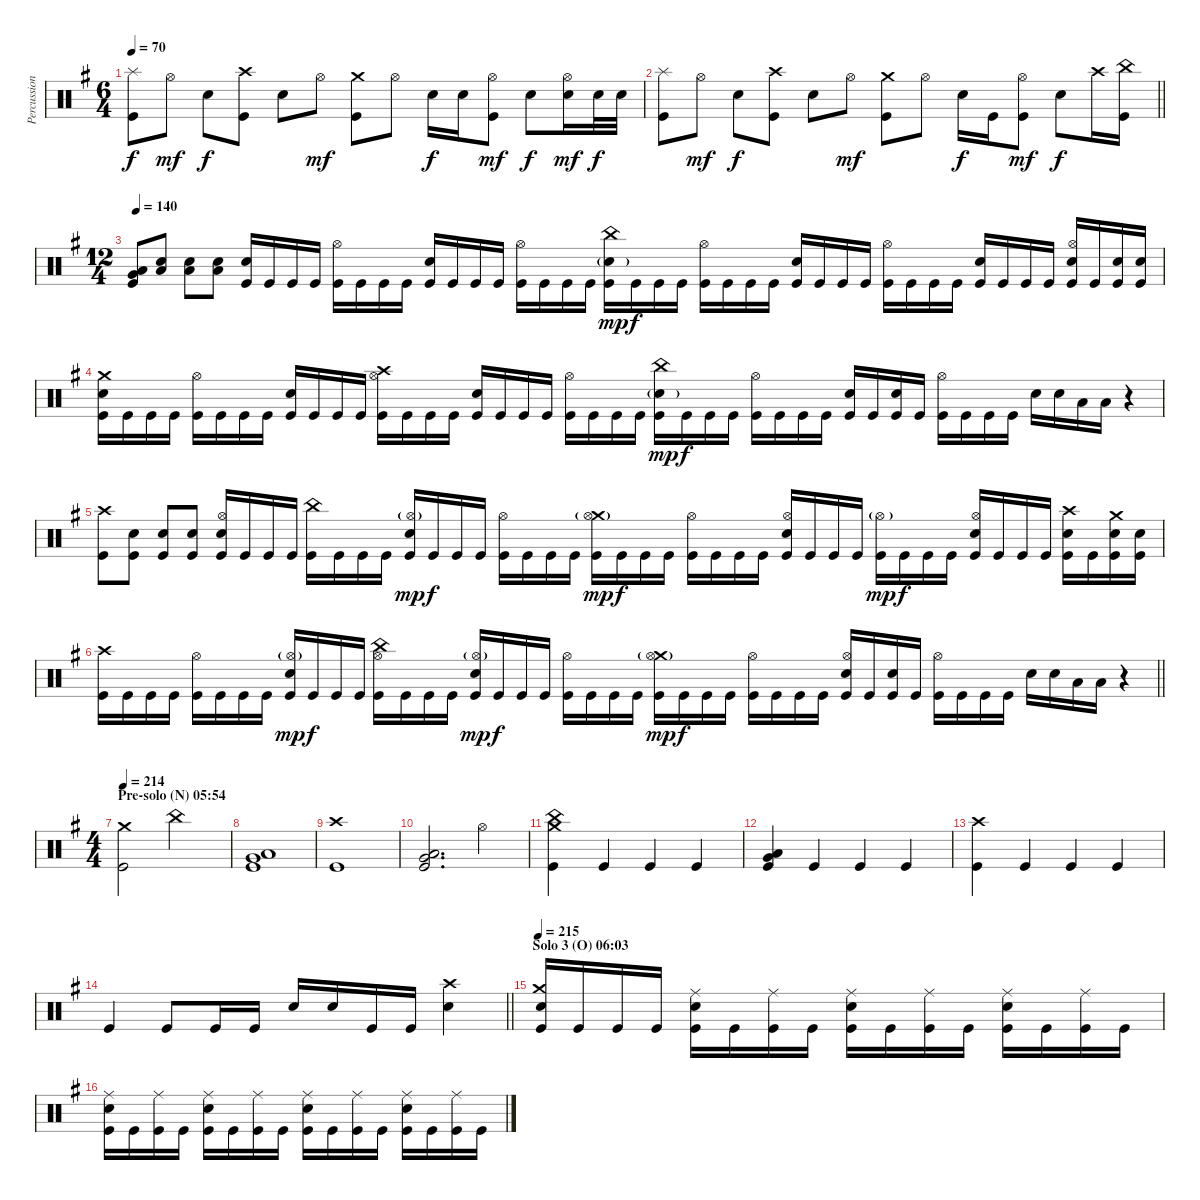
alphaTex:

\track ("Percussion" "Percussion") {instrument percussion}
\staff {score}
\articulation defaults
\ts (6 4)
\tempo 70
\clef neutral
\ks eminor
("Splash (hit)" "Kick (hit)").8{dy f} "Hi-Hat (open)".8{dy mf} "Snare (hit) 2".8{dy f} ("Crash high (hit)" "Kick (hit)").8 "Snare (hit) 2".8 "Hi-Hat (open)".8{dy mf} ("Crash medium (hit)" "Kick (hit)").8 "Hi-Hat (open)".8 "Snare (hit) 2".16{dy f} "Snare (hit) 2".16 ("Hi-Hat (open)" "Kick (hit)").8{dy mf} "Snare (hit) 2".8{dy f} ("Hi-Hat (open)" "Snare (hit) 2").16{dy mf} "Snare (hit) 2".32{dy f} "Snare (hit) 2".32 |
\barLineRight lightlight
("Splash (hit)" "Kick (hit)").8 "Hi-Hat (open)".8{dy mf} "Snare (hit) 2".8{dy f} ("Crash high (hit)" "Kick (hit)").8 "Snare (hit) 2".8 "Hi-Hat (open)".8{dy mf} ("Crash medium (hit)" "Kick (hit)").8 "Hi-Hat (open)".8 "Snare (hit) 2".16{dy f} "Kick (hit)".16 ("Hi-Hat (open)" "Kick (hit)").8{dy mf} "Snare (hit) 2".8{dy f} "Crash high (hit)".16 ("China (hit)" "Kick (hit)").16 |
\ts (12 4)
\tempo 140
("Very Low Tom (hit)" "Low Floor Tom (hit)" "Kick (hit)").8 ("Low Floor Tom (hit)" "Snare (hit) 2").8 ("Low Floor Tom (hit)" "Snare (hit) 2").8 ("Low Floor Tom (hit)" "Snare (hit) 2").8 ("Snare (hit) 2" "Kick (hit)").16 "Kick (hit)".16 "Kick (hit)".16 "Kick (hit)".16 ("Hi-Hat (open)" "Kick (hit)").16 "Kick (hit)".16 "Kick (hit)".16 "Kick (hit)".16 ("Snare (hit) 2" "Kick (hit)").16 "Kick (hit)".16 "Kick (hit)".16 "Kick (hit)".16 ("Hi-Hat (open)" "Kick (hit)").16 "Kick (hit)".16 "Kick (hit)".16 "Kick (hit)".16 ("China (hit)" "Snare (hit) 2"{g} "Kick (hit)").16{dy mp} "Kick (hit)".16{dy f} "Kick (hit)".16 "Kick (hit)".16 ("Hi-Hat (open)" "Kick (hit)").16 "Kick (hit)".16 "Kick (hit)".16 "Kick (hit)".16 ("Snare (hit) 2" "Kick (hit)").16 "Kick (hit)".16 "Kick (hit)".16 "Kick (hit)".16 ("Hi-Hat (open)" "Kick (hit)").16 "Kick (hit)".16 "Kick (hit)".16 "Kick (hit)".16 ("Snare (hit) 2" "Kick (hit)").16 "Kick (hit)".16 "Kick (hit)".16 "Kick (hit)".16 ("Hi-Hat (open)" "Snare (hit) 2" "Kick (hit)").16 "Kick (hit)".16 ("Snare (hit) 2" "Kick (hit)").16 ("Snare (hit) 2" "Kick (hit)").16 |
("Crash medium (hit)" "Snare (hit) 2" "Kick (hit)").16 "Kick (hit)".16 "Kick (hit)".16 "Kick (hit)".16 ("Hi-Hat (open)" "Kick (hit)").16 "Kick (hit)".16 "Kick (hit)".16 "Kick (hit)".16 ("Snare (hit) 2" "Kick (hit)").16 "Kick (hit)".16 "Kick (hit)".16 "Kick (hit)".16 ("Crash high (hit)" "Hi-Hat (open)" "Kick (hit)").16 "Kick (hit)".16 "Kick (hit)".16 "Kick (hit)".16 ("Snare (hit) 2" "Kick (hit)").16 "Kick (hit)".16 "Kick (hit)".16 "Kick (hit)".16 ("Hi-Hat (open)" "Kick (hit)").16 "Kick (hit)".16 "Kick (hit)".16 "Kick (hit)".16 ("China (hit)" "Snare (hit) 2"{g} "Kick (hit)").16{dy mp} "Kick (hit)".16{dy f} "Kick (hit)".16 "Kick (hit)".16 ("Hi-Hat (open)" "Kick (hit)").16 "Kick (hit)".16 "Kick (hit)".16 "Kick (hit)".16 ("Snare (hit) 2" "Kick (hit)").16 "Kick (hit)".16 ("Snare (hit) 2" "Kick (hit)").16 "Kick (hit)".16 ("Hi-Hat (open)" "Kick (hit)").16 "Kick (hit)".16 "Kick (hit)".16 "Kick (hit)".16 "Snare (hit) 2".16 "Snare (hit) 2".16 "Low Tom (hit)".16 "Low Tom (hit)".16 r.4 |
("Crash high (hit)" "Kick (hit)").8 ("Snare (hit) 2" "Kick (hit)").8 ("Snare (hit) 2" "Kick (hit)").8 ("Snare (hit) 2" "Kick (hit)").8 ("Hi-Hat (open)" "Snare (hit) 2" "Kick (hit)").16 "Kick (hit)".16 "Kick (hit)".16 "Kick (hit)".16 ("China (hit)" "Kick (hit)").16 "Kick (hit)".16 "Kick (hit)".16 "Kick (hit)".16 ("Hi-Hat (open)"{g} "Snare (hit) 2" "Kick (hit)").16{dy mp} "Kick (hit)".16{dy f} "Kick (hit)".16 "Kick (hit)".16 ("Hi-Hat (open)" "Kick (hit)").16 "Kick (hit)".16 "Kick (hit)".16 "Kick (hit)".16 ("Crash medium (hit)" "Hi-Hat (open)"{g} "Kick (hit)").16{dy mp} "Kick (hit)".16{dy f} "Kick (hit)".16 "Kick (hit)".16 ("Hi-Hat (open)" "Kick (hit)").16 "Kick (hit)".16 "Kick (hit)".16 "Kick (hit)".16 ("Hi-Hat (open)" "Snare (hit) 2" "Kick (hit)").16 "Kick (hit)".16 "Kick (hit)".16 "Kick (hit)".16 ("Hi-Hat (open)"{g} "Kick (hit)").16{dy mp} "Kick (hit)".16{dy f} "Kick (hit)".16 "Kick (hit)".16 ("Hi-Hat (open)" "Snare (hit) 2" "Kick (hit)").16 "Kick (hit)".16 "Kick (hit)".16 "Kick (hit)".16 ("Crash high (hit)" "Snare (hit) 2" "Kick (hit)").16 "Kick (hit)".16 ("Crash medium (hit)" "Snare (hit) 2" "Kick (hit)").16 ("Snare (hit) 2" "Kick (hit)").16 |
\barLineRight lightlight
("Crash high (hit)" "Kick (hit)").16 "Kick (hit)".16 "Kick (hit)".16 "Kick (hit)".16 ("Hi-Hat (open)" "Kick (hit)").16 "Kick (hit)".16 "Kick (hit)".16 "Kick (hit)".16 ("Hi-Hat (open)"{g} "Snare (hit) 2" "Kick (hit)").16{dy mp} "Kick (hit)".16{dy f} "Kick (hit)".16 "Kick (hit)".16 ("China (hit)" "Hi-Hat (open)" "Kick (hit)").16 "Kick (hit)".16 "Kick (hit)".16 "Kick (hit)".16 ("Hi-Hat (open)"{g} "Snare (hit) 2" "Kick (hit)").16{dy mp} "Kick (hit)".16{dy f} "Kick (hit)".16 "Kick (hit)".16 ("Hi-Hat (open)" "Kick (hit)").16 "Kick (hit)".16 "Kick (hit)".16 "Kick (hit)".16 ("Crash medium (hit)" "Hi-Hat (open)"{g} "Kick (hit)").16{dy mp} "Kick (hit)".16{dy f} "Kick (hit)".16 "Kick (hit)".16 ("Hi-Hat (open)" "Kick (hit)").16 "Kick (hit)".16 "Kick (hit)".16 "Kick (hit)".16 ("Hi-Hat (open)" "Snare (hit) 2" "Kick (hit)").16 "Kick (hit)".16 ("Snare (hit) 2" "Kick (hit)").16 "Kick (hit)".16 ("Hi-Hat (open)" "Kick (hit)").16 "Kick (hit)".16 "Kick (hit)".16 "Kick (hit)".16 "Snare (hit) 2".16 "Snare (hit) 2".16 "Low Tom (hit)".16 "Low Tom (hit)".16 r.4 |
\ts (4 4)
\section ("" "Pre-solo (N) 05:54")
\tempo 214
("Crash medium (hit)" "Kick (hit)").2 "China (hit)".2 |
("Low Tom (hit)" "Very Low Tom (hit)" "Kick (hit)").1 |
("Crash high (hit)" "Kick (hit)").1 |
("Low Tom (hit)" "Very Low Tom (hit)" "Kick (hit)").2{d} "Hi-Hat (open)".4 |
("China (hit)" "Crash medium (hit)" "Kick (hit)").4 "Kick (hit)".4 "Kick (hit)".4 "Kick (hit)".4 |
("Low Tom (hit)" "Very Low Tom (hit)" "Kick (hit)").4 "Kick (hit)".4 "Kick (hit)".4 "Kick (hit)".4 |
("Crash high (hit)" "Kick (hit)").4 "Kick (hit)".4 "Kick (hit)".4 "Kick (hit)".4 |
\barLineRight lightlight "Kick (hit)".4 "Kick (hit)".8 "Kick (hit)".16 "Kick (hit)".16 "Snare (hit) 2".16 "Snare (hit) 2".16 "Kick (hit)".16 "Kick (hit)".16
("Crash high (hit)" "Snare (hit) 2").4 |
\section ("" "Solo 3 (O) 06:03")
\tempo 215
("Crash medium (hit)" "Electric Snare (hit)" "Kick (hit)").16 "Kick (hit)".16 "Kick (hit)".16 "Kick (hit)".16 ("Ride (middle)" "Electric Snare (hit)" "Kick (hit)").16 "Kick (hit)".16 ("Ride (middle)" "Kick (hit)").16 "Kick (hit)".16 ("Ride (middle)" "Electric Snare (hit)" "Kick (hit)").16 "Kick (hit)".16 ("Ride (middle)" "Kick (hit)").16 "Kick (hit)".16 ("Ride (middle)" "Electric Snare (hit)" "Kick (hit)").16 "Kick (hit)".16 ("Ride (middle)" "Kick (hit)").16 "Kick (hit)".16 |
("Ride (middle)" "Electric Snare (hit)" "Kick (hit)").16 "Kick (hit)".16 ("Ride (middle)" "Kick (hit)").16 "Kick (hit)".16 ("Ride (middle)" "Electric Snare (hit)" "Kick (hit)").16 "Kick (hit)".16 ("Ride (middle)" "Kick (hit)").16 "Kick (hit)".16 ("Ride (middle)" "Electric Snare (hit)" "Kick (hit)").16 "Kick (hit)".16 ("Ride (middle)" "Kick (hit)").16 "Kick (hit)".16 ("Ride (middle)" "Electric Snare (hit)" "Kick (hit)").16 "Kick (hit)".16 ("Ride (middle)" "Kick (hit)").16 "Kick (hit)".16
